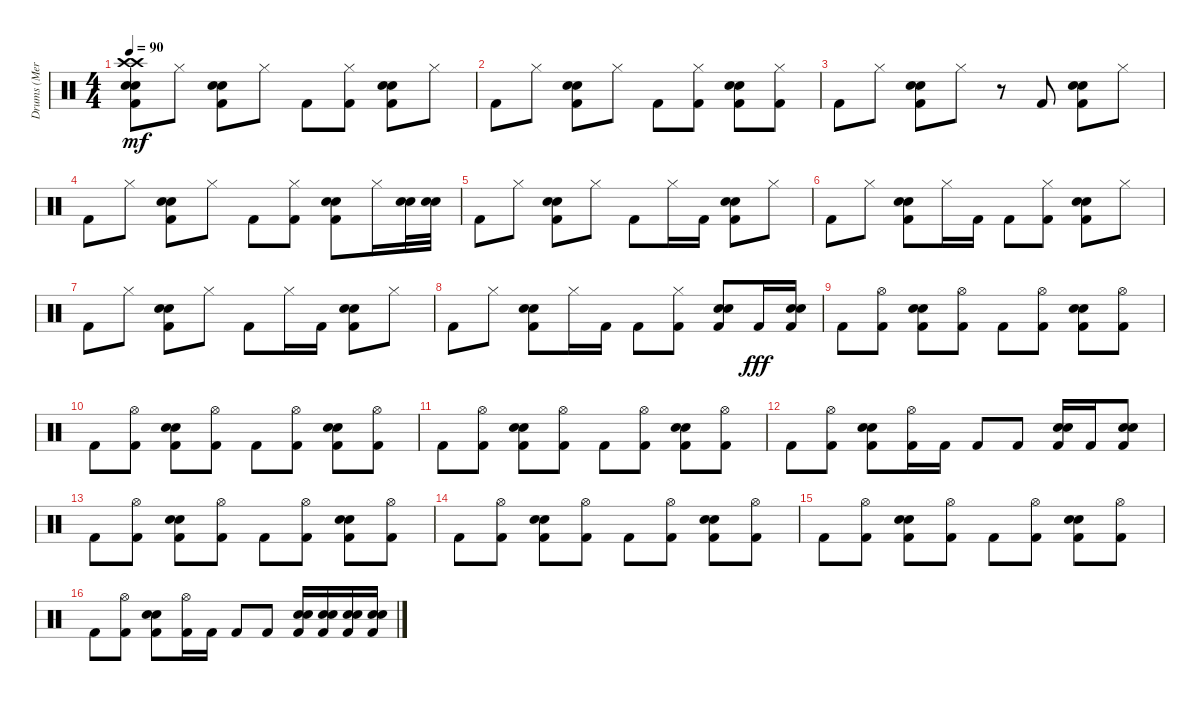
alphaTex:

\track ("Drums (Merlin)" "Drums (Mer") {instrument percussion}
\staff {score}
\articulation defaults
\ts (4 4)
\tempo 90
\clef neutral
\ks c
("Crash high (hit)" "Crash high (hit)" "Electric Snare (hit)" "Snare (hit) 2" "Kick (hit) 2").8{dy mf} "Hi-Hat (closed)".8 ("Electric Snare (hit)" "Snare (hit) 2" "Kick (hit) 2").8 "Hi-Hat (closed)".8 "Kick (hit) 2".8 ("Hi-Hat (closed)" "Kick (hit) 2").8 ("Electric Snare (hit)" "Snare (hit) 2" "Kick (hit) 2").8 "Hi-Hat (closed)".8 |
"Kick (hit) 2".8 "Hi-Hat (closed)".8 ("Electric Snare (hit)" "Snare (hit) 2" "Kick (hit) 2").8 "Hi-Hat (closed)".8 "Kick (hit) 2".8 ("Hi-Hat (closed)" "Kick (hit) 2").8 ("Electric Snare (hit)" "Snare (hit) 2" "Kick (hit) 2").8 ("Hi-Hat (closed)" "Kick (hit) 2").8 |
"Kick (hit) 2".8 "Hi-Hat (closed)".8 ("Electric Snare (hit)" "Snare (hit) 2" "Kick (hit) 2").8 "Hi-Hat (closed)".8 r.8 "Kick (hit) 2".8 ("Electric Snare (hit)" "Snare (hit) 2" "Kick (hit) 2").8 "Hi-Hat (closed)".8 |
"Kick (hit) 2".8 "Hi-Hat (closed)".8 ("Electric Snare (hit)" "Snare (hit) 2" "Kick (hit) 2").8 "Hi-Hat (closed)".8 "Kick (hit) 2".8 ("Hi-Hat (closed)" "Kick (hit) 2").8 ("Electric Snare (hit)" "Snare (hit) 2" "Kick (hit) 2").8 "Hi-Hat (closed)".16 ("Electric Snare (hit)" "Snare (hit) 2").32 ("Electric Snare (hit)" "Snare (hit) 2").32 |
"Kick (hit) 2".8 "Hi-Hat (closed)".8 ("Electric Snare (hit)" "Snare (hit) 2" "Kick (hit) 2").8 "Hi-Hat (closed)".8 "Kick (hit) 2".8 "Hi-Hat (closed)".16 "Kick (hit) 2".16 ("Electric Snare (hit)" "Snare (hit) 2" "Kick (hit) 2").8 "Hi-Hat (closed)".8 |
"Kick (hit) 2".8 "Hi-Hat (closed)".8 ("Electric Snare (hit)" "Snare (hit) 2" "Kick (hit) 2").8 "Hi-Hat (closed)".16 "Kick (hit) 2".16 "Kick (hit) 2".8 ("Hi-Hat (closed)" "Kick (hit) 2").8 ("Electric Snare (hit)" "Snare (hit) 2" "Kick (hit) 2").8 "Hi-Hat (closed)".8 |
"Kick (hit) 2".8 "Hi-Hat (closed)".8 ("Electric Snare (hit)" "Snare (hit) 2" "Kick (hit) 2").8 "Hi-Hat (closed)".8 "Kick (hit) 2".8 "Hi-Hat (closed)".16 "Kick (hit) 2".16 ("Electric Snare (hit)" "Snare (hit) 2" "Kick (hit) 2").8 "Hi-Hat (closed)".8 |
"Kick (hit) 2".8 "Hi-Hat (closed)".8 ("Electric Snare (hit)" "Snare (hit) 2" "Kick (hit) 2").8 "Hi-Hat (closed)".16 "Kick (hit) 2".16 "Kick (hit) 2".8 ("Hi-Hat (closed)" "Kick (hit) 2").8 ("Electric Snare (hit)" "Snare (hit) 2" "Kick (hit) 2").8 "Kick (hit) 2".16{dy fff} ("Electric Snare (hit)" "Snare (hit) 2" "Kick (hit) 2").16 |
"Kick (hit) 2".8 ("Hi-Hat (open)" "Kick (hit) 2").8 ("Electric Snare (hit)" "Snare (hit) 2" "Kick (hit) 2").8 ("Hi-Hat (open)" "Kick (hit) 2").8 "Kick (hit) 2".8 ("Hi-Hat (open)" "Kick (hit) 2").8 ("Electric Snare (hit)" "Snare (hit) 2" "Kick (hit) 2").8 ("Hi-Hat (open)" "Kick (hit) 2").8 |
"Kick (hit) 2".8 ("Hi-Hat (open)" "Kick (hit) 2").8 ("Electric Snare (hit)" "Snare (hit) 2" "Kick (hit) 2").8 ("Hi-Hat (open)" "Kick (hit) 2").8 "Kick (hit) 2".8 ("Hi-Hat (open)" "Kick (hit) 2").8 ("Electric Snare (hit)" "Snare (hit) 2" "Kick (hit) 2").8 ("Hi-Hat (open)" "Kick (hit) 2").8 |
"Kick (hit) 2".8 ("Hi-Hat (open)" "Kick (hit) 2").8 ("Electric Snare (hit)" "Snare (hit) 2" "Kick (hit) 2").8 ("Hi-Hat (open)" "Kick (hit) 2").8 "Kick (hit) 2".8 ("Hi-Hat (open)" "Kick (hit) 2").8 ("Electric Snare (hit)" "Snare (hit) 2" "Kick (hit) 2").8 ("Hi-Hat (open)" "Kick (hit) 2").8 |
"Kick (hit) 2".8 ("Hi-Hat (open)" "Kick (hit) 2").8 ("Electric Snare (hit)" "Snare (hit) 2" "Kick (hit) 2").8 ("Hi-Hat (open)" "Kick (hit) 2").16 "Kick (hit) 2".16 "Kick (hit) 2".8 "Kick (hit) 2".8 ("Electric Snare (hit)" "Snare (hit) 2" "Kick (hit) 2").16 "Kick (hit) 2".16 ("Electric Snare (hit)" "Snare (hit) 2" "Kick (hit) 2").8 |
"Kick (hit) 2".8 ("Hi-Hat (open)" "Kick (hit) 2").8 ("Electric Snare (hit)" "Snare (hit) 2" "Kick (hit) 2").8 ("Hi-Hat (open)" "Kick (hit) 2").8 "Kick (hit) 2".8 ("Hi-Hat (open)" "Kick (hit) 2").8 ("Electric Snare (hit)" "Snare (hit) 2" "Kick (hit) 2").8 ("Hi-Hat (open)" "Kick (hit) 2").8 |
"Kick (hit) 2".8 ("Hi-Hat (open)" "Kick (hit) 2").8 ("Electric Snare (hit)" "Snare (hit) 2" "Kick (hit) 2").8 ("Hi-Hat (open)" "Kick (hit) 2").8 "Kick (hit) 2".8 ("Hi-Hat (open)" "Kick (hit) 2").8 ("Electric Snare (hit)" "Snare (hit) 2" "Kick (hit) 2").8 ("Hi-Hat (open)" "Kick (hit) 2").8 |
"Kick (hit) 2".8 ("Hi-Hat (open)" "Kick (hit) 2").8 ("Electric Snare (hit)" "Snare (hit) 2" "Kick (hit) 2").8 ("Hi-Hat (open)" "Kick (hit) 2").8 "Kick (hit) 2".8 ("Hi-Hat (open)" "Kick (hit) 2").8 ("Electric Snare (hit)" "Snare (hit) 2" "Kick (hit) 2").8 ("Hi-Hat (open)" "Kick (hit) 2").8 |
"Kick (hit) 2".8 ("Hi-Hat (open)" "Kick (hit) 2").8 ("Electric Snare (hit)" "Snare (hit) 2" "Kick (hit) 2").8 ("Hi-Hat (open)" "Kick (hit) 2").16 "Kick (hit) 2".16 "Kick (hit) 2".8 "Kick (hit) 2".8 ("Electric Snare (hit)" "Snare (hit) 2" "Kick (hit) 2").16 ("Electric Snare (hit)" "Snare (hit) 2" "Kick (hit) 2").16 ("Electric Snare (hit)" "Snare (hit) 2" "Kick (hit) 2").16 ("Electric Snare (hit)" "Snare (hit) 2" "Kick (hit) 2").16
